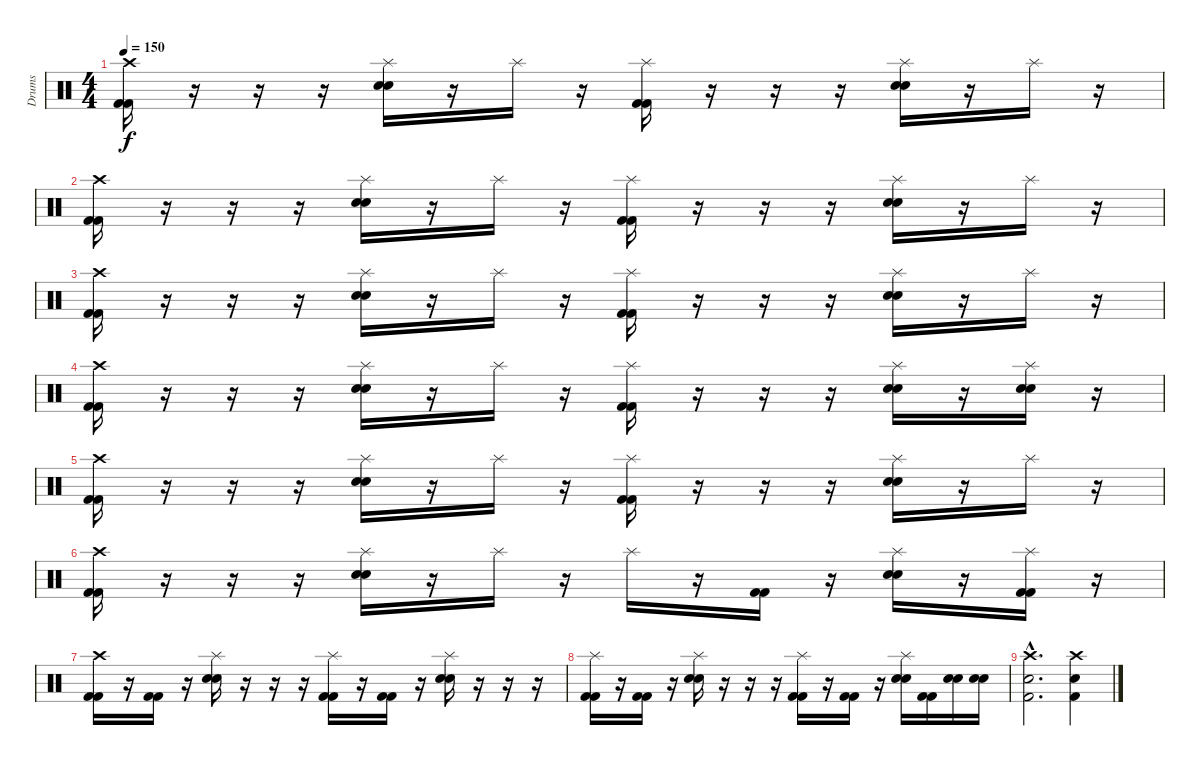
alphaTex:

\track ("Drums" "Drums") {instrument percussion}
\staff {score}
\articulation defaults
\ts (4 4)
\tempo 150
\clef neutral
\ks c
("Crash high (hit)" "Kick (hit) 2" "Kick (hit) 2").16{dy f} r.16 r.16 r.16 ("Splash (hit)" "Electric Snare (hit)" "Electric Snare (hit)").16 r.16 "Splash (hit)".16 r.16 ("Splash (hit)" "Kick (hit) 2" "Kick (hit) 2").16 r.16 r.16 r.16 ("Splash (hit)" "Electric Snare (hit)" "Electric Snare (hit)").16 r.16 "Splash (hit)".16 r.16 |
("Crash high (hit)" "Kick (hit) 2" "Kick (hit) 2").16 r.16 r.16 r.16 ("Splash (hit)" "Electric Snare (hit)" "Electric Snare (hit)").16 r.16 "Splash (hit)".16 r.16 ("Splash (hit)" "Kick (hit) 2" "Kick (hit) 2").16 r.16 r.16 r.16 ("Splash (hit)" "Electric Snare (hit)" "Electric Snare (hit)").16 r.16 "Splash (hit)".16 r.16 |
("Crash high (hit)" "Kick (hit) 2" "Kick (hit) 2").16 r.16 r.16 r.16 ("Splash (hit)" "Electric Snare (hit)" "Electric Snare (hit)").16 r.16 "Splash (hit)".16 r.16 ("Splash (hit)" "Kick (hit) 2" "Kick (hit) 2").16 r.16 r.16 r.16 ("Splash (hit)" "Electric Snare (hit)" "Electric Snare (hit)").16 r.16 "Splash (hit)".16 r.16 |
("Crash high (hit)" "Kick (hit) 2" "Kick (hit) 2").16 r.16 r.16 r.16 ("Splash (hit)" "Electric Snare (hit)" "Electric Snare (hit)").16 r.16 "Splash (hit)".16 r.16 ("Splash (hit)" "Kick (hit) 2" "Kick (hit) 2").16 r.16 r.16 r.16 ("Splash (hit)" "Electric Snare (hit)" "Electric Snare (hit)").16 r.16 ("Splash (hit)" "Electric Snare (hit)" "Electric Snare (hit)").16 r.16 |
("Crash high (hit)" "Kick (hit) 2" "Kick (hit) 2").16 r.16 r.16 r.16 ("Splash (hit)" "Electric Snare (hit)" "Electric Snare (hit)").16 r.16 "Splash (hit)".16 r.16 ("Splash (hit)" "Kick (hit) 2" "Kick (hit) 2").16 r.16 r.16 r.16 ("Splash (hit)" "Electric Snare (hit)" "Electric Snare (hit)").16 r.16 "Splash (hit)".16 r.16 |
("Crash high (hit)" "Kick (hit) 2" "Kick (hit) 2").16 r.16 r.16 r.16 ("Splash (hit)" "Electric Snare (hit)" "Electric Snare (hit)").16 r.16 "Splash (hit)".16 r.16 "Splash (hit)".16 r.16 ("Kick (hit) 2" "Kick (hit) 2").16 r.16 ("Splash (hit)" "Electric Snare (hit)" "Electric Snare (hit)").16 r.16 ("Splash (hit)" "Kick (hit) 2" "Kick (hit) 2").16 r.16 |
("Crash high (hit)" "Kick (hit) 2" "Kick (hit) 2").16 r.16 ("Kick (hit) 2" "Kick (hit) 2").16 r.16 ("Splash (hit)" "Electric Snare (hit)" "Electric Snare (hit)").16 r.16 r.16 r.16 ("Splash (hit)" "Kick (hit) 2" "Kick (hit) 2").16 r.16 ("Kick (hit) 2" "Kick (hit) 2").16 r.16 ("Splash (hit)" "Electric Snare (hit)" "Electric Snare (hit)").16 r.16 r.16 r.16 |
("Splash (hit)" "Kick (hit) 2" "Kick (hit) 2").16 r.16 ("Kick (hit) 2" "Kick (hit) 2").16 r.16 ("Splash (hit)" "Electric Snare (hit)" "Electric Snare (hit)").16 r.16 r.16 r.16 ("Splash (hit)" "Kick (hit) 2" "Kick (hit) 2").16 r.16 ("Kick (hit) 2" "Kick (hit) 2").16 r.16 ("Splash (hit)" "Electric Snare (hit)" "Electric Snare (hit)").16 ("Kick (hit) 2" "Kick (hit) 2").16 ("Electric Snare (hit)" "Electric Snare (hit)").16 ("Electric Snare (hit)" "Electric Snare (hit)").16 |
("Crash high (hit)"{hac} "Electric Snare (hit)"{hac} "Kick (hit) 2"{hac}).2{d} ("Crash high (hit)" "Electric Snare (hit)" "Kick (hit) 2").4
